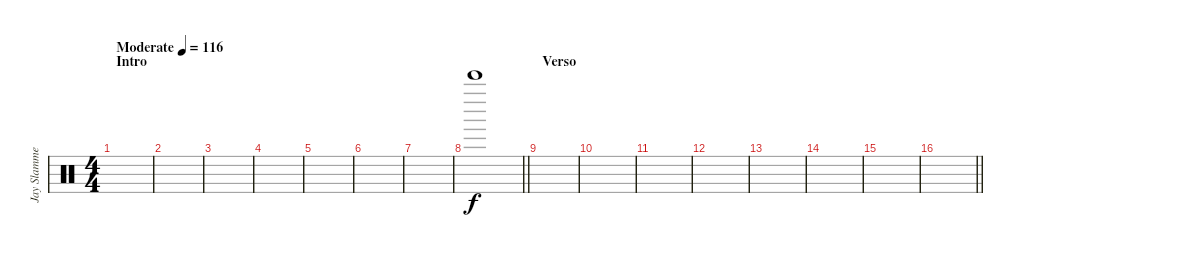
\track ("Jay Slammer " "Jay Slamme") {instrument percussion}
\staff {score}
\articulation defaults
\ts (4 4)
\section ("" "Intro")
\tempo (116 "Moderate")
\clef neutral
\ks c
|
|
|
|
|
|
|
\barLineRight lightlight "Bell Tree (hit)".1
|
\section ("" "Verso")
|
|
|
|
|
|
|
\barLineRight lightlight
